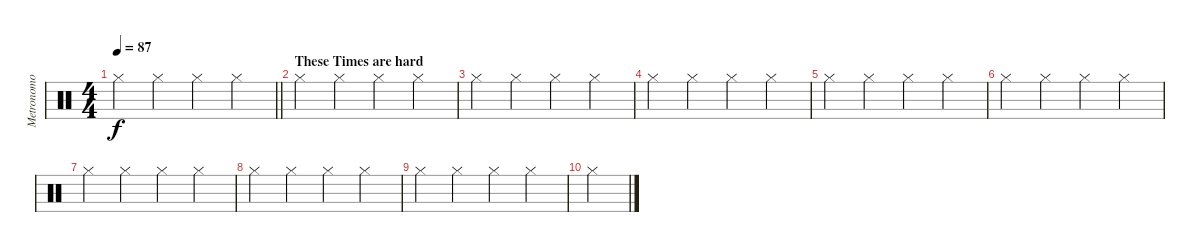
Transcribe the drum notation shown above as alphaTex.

\track ("Metronomo" "Metronomo") {instrument percussion}
\staff {score}
\articulation defaults
\ts (4 4)
\tempo 87
\clef neutral
\barLineRight lightlight
\ks c "Hi-Hat (closed)".4{dy f} "Hi-Hat (closed)".4 "Hi-Hat (closed)".4 "Hi-Hat (closed)".4
|
\section ("" "These Times are hard")
"Hi-Hat (closed)".4 "Hi-Hat (closed)".4 "Hi-Hat (closed)".4 "Hi-Hat (closed)".4 |
"Hi-Hat (closed)".4 "Hi-Hat (closed)".4 "Hi-Hat (closed)".4 "Hi-Hat (closed)".4 |
"Hi-Hat (closed)".4 "Hi-Hat (closed)".4 "Hi-Hat (closed)".4 "Hi-Hat (closed)".4 |
"Hi-Hat (closed)".4 "Hi-Hat (closed)".4 "Hi-Hat (closed)".4 "Hi-Hat (closed)".4 |
"Hi-Hat (closed)".4 "Hi-Hat (closed)".4 "Hi-Hat (closed)".4 "Hi-Hat (closed)".4 |
"Hi-Hat (closed)".4 "Hi-Hat (closed)".4 "Hi-Hat (closed)".4 "Hi-Hat (closed)".4 |
"Hi-Hat (closed)".4 "Hi-Hat (closed)".4 "Hi-Hat (closed)".4 "Hi-Hat (closed)".4 |
"Hi-Hat (closed)".4 "Hi-Hat (closed)".4 "Hi-Hat (closed)".4 "Hi-Hat (closed)".4 |
"Hi-Hat (closed)".4
